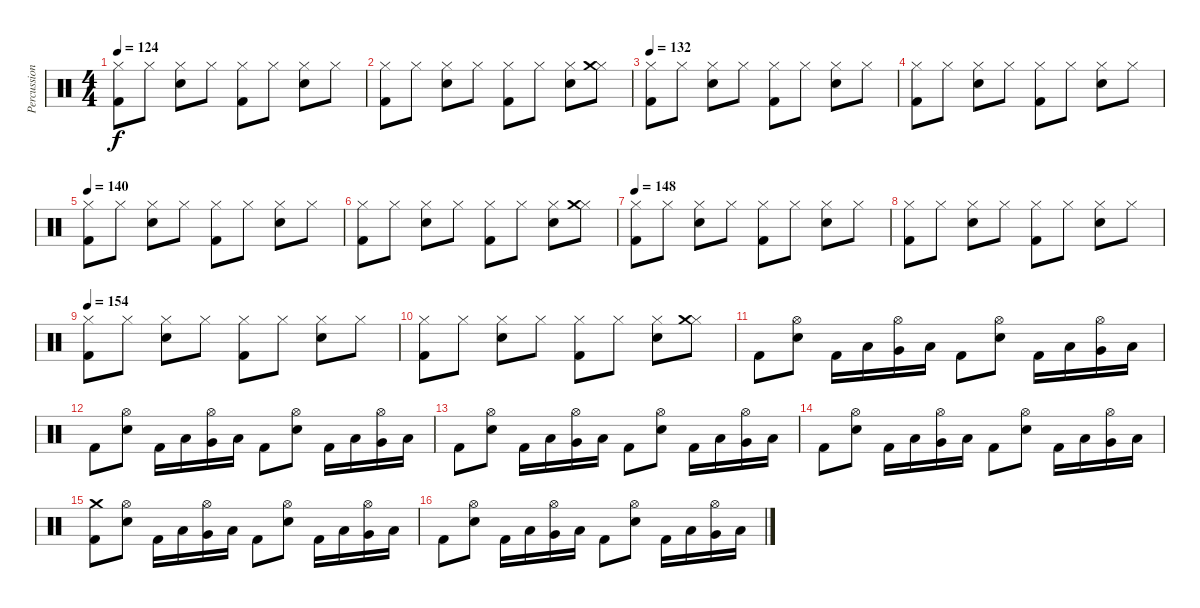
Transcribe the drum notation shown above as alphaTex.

\track ("Percussions" "Percussion") {instrument percussion}
\staff {score}
\articulation defaults
\ts (4 4)
\tempo 124
\clef neutral
\ks c
("Hi-Hat (closed)" "Kick (hit) 2").8{dy f} "Hi-Hat (closed)".8 ("Hi-Hat (closed)" "Electric Snare (hit)").8 "Hi-Hat (closed)".8 ("Hi-Hat (closed)" "Kick (hit) 2").8 "Hi-Hat (closed)".8 ("Hi-Hat (closed)" "Electric Snare (hit)").8 "Hi-Hat (closed)".8 |
("Hi-Hat (closed)" "Kick (hit) 2").8 "Hi-Hat (closed)".8 ("Hi-Hat (closed)" "Electric Snare (hit)").8 "Hi-Hat (closed)".8 ("Hi-Hat (closed)" "Kick (hit) 2").8 "Hi-Hat (closed)".8 ("Hi-Hat (closed)" "Electric Snare (hit)").8 ("Hi-Hat (closed)" "Crash medium (hit)").8 |
\tempo 132
("Hi-Hat (closed)" "Kick (hit) 2").8 "Hi-Hat (closed)".8 ("Hi-Hat (closed)" "Electric Snare (hit)").8 "Hi-Hat (closed)".8 ("Hi-Hat (closed)" "Kick (hit) 2").8 "Hi-Hat (closed)".8 ("Hi-Hat (closed)" "Electric Snare (hit)").8 "Hi-Hat (closed)".8 |
("Hi-Hat (closed)" "Kick (hit) 2").8 "Hi-Hat (closed)".8 ("Hi-Hat (closed)" "Electric Snare (hit)").8 "Hi-Hat (closed)".8 ("Hi-Hat (closed)" "Kick (hit) 2").8 "Hi-Hat (closed)".8 ("Hi-Hat (closed)" "Electric Snare (hit)").8 "Hi-Hat (closed)".8 |
\tempo 140
("Hi-Hat (closed)" "Kick (hit) 2").8 "Hi-Hat (closed)".8 ("Hi-Hat (closed)" "Electric Snare (hit)").8 "Hi-Hat (closed)".8 ("Hi-Hat (closed)" "Kick (hit) 2").8 "Hi-Hat (closed)".8 ("Hi-Hat (closed)" "Electric Snare (hit)").8 "Hi-Hat (closed)".8 |
("Hi-Hat (closed)" "Kick (hit) 2").8 "Hi-Hat (closed)".8 ("Hi-Hat (closed)" "Electric Snare (hit)").8 "Hi-Hat (closed)".8 ("Hi-Hat (closed)" "Kick (hit) 2").8 "Hi-Hat (closed)".8 ("Hi-Hat (closed)" "Electric Snare (hit)").8 ("Hi-Hat (closed)" "Crash medium (hit)").8 |
\tempo 136
\tempo 148
("Hi-Hat (closed)" "Kick (hit) 2").8 "Hi-Hat (closed)".8 ("Hi-Hat (closed)" "Electric Snare (hit)").8 "Hi-Hat (closed)".8 ("Hi-Hat (closed)" "Kick (hit) 2").8 "Hi-Hat (closed)".8 ("Hi-Hat (closed)" "Electric Snare (hit)").8 "Hi-Hat (closed)".8 |
("Hi-Hat (closed)" "Kick (hit) 2").8 "Hi-Hat (closed)".8 ("Hi-Hat (closed)" "Electric Snare (hit)").8 "Hi-Hat (closed)".8 ("Hi-Hat (closed)" "Kick (hit) 2").8 "Hi-Hat (closed)".8 ("Hi-Hat (closed)" "Electric Snare (hit)").8 "Hi-Hat (closed)".8 |
\tempo 144
\tempo 154
("Hi-Hat (closed)" "Kick (hit) 2").8 "Hi-Hat (closed)".8 ("Hi-Hat (closed)" "Electric Snare (hit)").8 "Hi-Hat (closed)".8 ("Hi-Hat (closed)" "Kick (hit) 2").8 "Hi-Hat (closed)".8 ("Hi-Hat (closed)" "Electric Snare (hit)").8 "Hi-Hat (closed)".8 |
("Hi-Hat (closed)" "Kick (hit) 2").8 "Hi-Hat (closed)".8 ("Hi-Hat (closed)" "Electric Snare (hit)").8 "Hi-Hat (closed)".8 ("Hi-Hat (closed)" "Kick (hit) 2").8 "Hi-Hat (closed)".8 ("Hi-Hat (closed)" "Electric Snare (hit)").8 ("Hi-Hat (closed)" "Crash medium (hit)").8 |
"Kick (hit) 2".8 ("Hi-Hat (open)" "Electric Snare (hit)").8 "Kick (hit) 2".16 "Low Tom (hit)".16 ("Very Low Tom (hit)" "Hi-Hat (open)").16 "Low Floor Tom (hit)".16 "Kick (hit) 2".8 ("Hi-Hat (open)" "Electric Snare (hit)").8 "Kick (hit) 2".16 "Low Tom (hit)".16 ("Very Low Tom (hit)" "Hi-Hat (open)").16 "Low Floor Tom (hit)".16 |
"Kick (hit) 2".8 ("Hi-Hat (open)" "Electric Snare (hit)").8 "Kick (hit) 2".16 "Low Tom (hit)".16 ("Very Low Tom (hit)" "Hi-Hat (open)").16 "Low Floor Tom (hit)".16 "Kick (hit) 2".8 ("Hi-Hat (open)" "Electric Snare (hit)").8 "Kick (hit) 2".16 "Low Tom (hit)".16 ("Very Low Tom (hit)" "Hi-Hat (open)").16 "Low Floor Tom (hit)".16 |
"Kick (hit) 2".8 ("Hi-Hat (open)" "Electric Snare (hit)").8 "Kick (hit) 2".16 "Low Tom (hit)".16 ("Very Low Tom (hit)" "Hi-Hat (open)").16 "Low Floor Tom (hit)".16 "Kick (hit) 2".8 ("Hi-Hat (open)" "Electric Snare (hit)").8 "Kick (hit) 2".16 "Low Tom (hit)".16 ("Very Low Tom (hit)" "Hi-Hat (open)").16 "Low Floor Tom (hit)".16 |
"Kick (hit) 2".8 ("Hi-Hat (open)" "Electric Snare (hit)").8 "Kick (hit) 2".16 "Low Tom (hit)".16 ("Very Low Tom (hit)" "Hi-Hat (open)").16 "Low Floor Tom (hit)".16 "Kick (hit) 2".8 ("Hi-Hat (open)" "Electric Snare (hit)").8 "Kick (hit) 2".16 "Low Tom (hit)".16 ("Very Low Tom (hit)" "Hi-Hat (open)").16 "Low Floor Tom (hit)".16 |
("Kick (hit) 2" "Crash medium (hit)").8 ("Hi-Hat (open)" "Electric Snare (hit)").8 "Kick (hit) 2".16 "Low Tom (hit)".16 ("Very Low Tom (hit)" "Hi-Hat (open)").16 "Low Floor Tom (hit)".16 "Kick (hit) 2".8 ("Hi-Hat (open)" "Electric Snare (hit)").8 "Kick (hit) 2".16 "Low Tom (hit)".16 ("Very Low Tom (hit)" "Hi-Hat (open)").16 "Low Floor Tom (hit)".16 |
"Kick (hit) 2".8 ("Hi-Hat (open)" "Electric Snare (hit)").8 "Kick (hit) 2".16 "Low Tom (hit)".16 ("Very Low Tom (hit)" "Hi-Hat (open)").16 "Low Floor Tom (hit)".16 "Kick (hit) 2".8 ("Hi-Hat (open)" "Electric Snare (hit)").8 "Kick (hit) 2".16 "Low Tom (hit)".16 ("Very Low Tom (hit)" "Hi-Hat (open)").16 "Low Floor Tom (hit)".16
